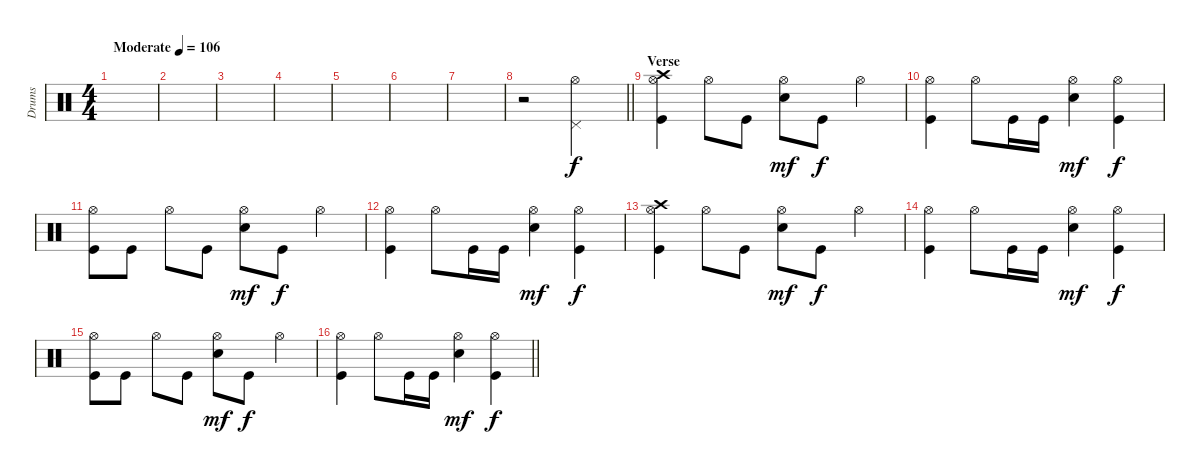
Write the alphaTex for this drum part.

\track ("Drums" "Drums") {instrument percussion}
\staff {score}
\articulation defaults
\ts (4 4)
\tempo (106 "Moderate")
\clef neutral
\ks c
|
|
|
|
|
|
|
\barLineRight lightlight
r.2 ("Pedal Hi-Hat (hit)" "Hi-Hat (open)").2 |
\section ("" "Verse")
("Crash high (hit)" "Hi-Hat (open)" "Kick (hit)").4 "Hi-Hat (open)".8 "Kick (hit)".8 ("Hi-Hat (open)" "Electric Snare (hit)").8{dy mf} "Kick (hit)".8{dy f} "Hi-Hat (open)".4 |
("Hi-Hat (open)" "Kick (hit)").4 "Hi-Hat (open)".8 "Kick (hit)".16 "Kick (hit)".16 ("Hi-Hat (open)" "Electric Snare (hit)").4{dy mf} ("Hi-Hat (open)" "Kick (hit)").4{dy f} |
("Hi-Hat (open)" "Kick (hit)").8 "Kick (hit)".8 "Hi-Hat (open)".8 "Kick (hit)".8 ("Hi-Hat (open)" "Electric Snare (hit)").8{dy mf} "Kick (hit)".8{dy f} "Hi-Hat (open)".4 |
("Hi-Hat (open)" "Kick (hit)").4 "Hi-Hat (open)".8 "Kick (hit)".16 "Kick (hit)".16 ("Hi-Hat (open)" "Electric Snare (hit)").4{dy mf} ("Hi-Hat (open)" "Kick (hit)").4{dy f} |
("Crash high (hit)" "Hi-Hat (open)" "Kick (hit)").4 "Hi-Hat (open)".8 "Kick (hit)".8 ("Hi-Hat (open)" "Electric Snare (hit)").8{dy mf} "Kick (hit)".8{dy f} "Hi-Hat (open)".4 |
("Hi-Hat (open)" "Kick (hit)").4 "Hi-Hat (open)".8 "Kick (hit)".16 "Kick (hit)".16 ("Hi-Hat (open)" "Electric Snare (hit)").4{dy mf} ("Hi-Hat (open)" "Kick (hit)").4{dy f} |
("Hi-Hat (open)" "Kick (hit)").8 "Kick (hit)".8 "Hi-Hat (open)".8 "Kick (hit)".8 ("Hi-Hat (open)" "Electric Snare (hit)").8{dy mf} "Kick (hit)".8{dy f} "Hi-Hat (open)".4 |
\barLineRight lightlight
("Hi-Hat (open)" "Kick (hit)").4 "Hi-Hat (open)".8 "Kick (hit)".16 "Kick (hit)".16 ("Hi-Hat (open)" "Electric Snare (hit)").4{dy mf} ("Hi-Hat (open)" "Kick (hit)").4{dy f}
